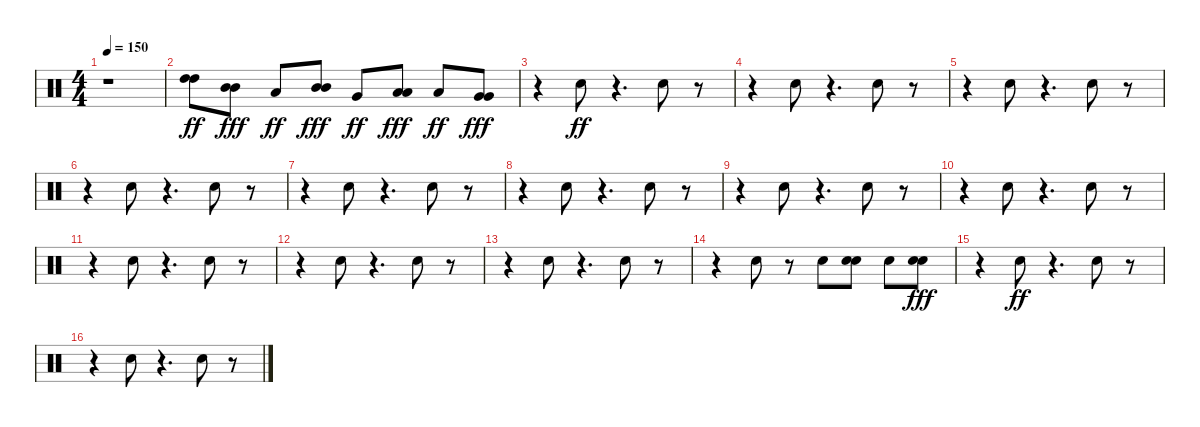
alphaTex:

\track "" {instrument percussion}
\staff {score}
\articulation defaults
\ts (4 4)
\tempo 150
\clef neutral
\ks c
r.1{dy ff} |
("High Tom (hit)" "High Tom (hit)").8 ("Mid Tom (hit)" "Mid Tom (hit)").8{dy fff} "Low Tom (hit)".8{dy ff} ("Mid Tom (hit)" "Mid Tom (hit)").8{dy fff} "Very Low Tom (hit)".8{dy ff} ("Low Tom (hit)" "Low Tom (hit)").8{dy fff} "Low Floor Tom (hit)".8{dy ff} ("Very Low Tom (hit)" "Very Low Tom (hit)").8{dy fff} |
r.4 "Electric Snare (hit)".8{dy ff} r.4{d} "Electric Snare (hit)".8 r.8 |
r.4 "Electric Snare (hit)".8 r.4{d} "Electric Snare (hit)".8 r.8 |
r.4 "Electric Snare (hit)".8 r.4{d} "Electric Snare (hit)".8 r.8 |
r.4 "Electric Snare (hit)".8 r.4{d} "Electric Snare (hit)".8 r.8 |
r.4 "Electric Snare (hit)".8 r.4{d} "Electric Snare (hit)".8 r.8 |
r.4 "Electric Snare (hit)".8 r.4{d} "Electric Snare (hit)".8 r.8 |
r.4 "Electric Snare (hit)".8 r.4{d} "Electric Snare (hit)".8 r.8 |
r.4 "Electric Snare (hit)".8 r.4{d} "Electric Snare (hit)".8 r.8 |
r.4 "Electric Snare (hit)".8 r.4{d} "Electric Snare (hit)".8 r.8 |
r.4 "Electric Snare (hit)".8 r.4{d} "Electric Snare (hit)".8 r.8 |
r.4 "Electric Snare (hit)".8 r.4{d} "Electric Snare (hit)".8 r.8 |
r.4 "Electric Snare (hit)".8 r.8 "Electric Snare (hit)".8 ("Electric Snare (hit)" "Electric Snare (hit)").8 "Electric Snare (hit)".8 ("Electric Snare (hit)" "Electric Snare (hit)").8{dy fff} |
r.4 "Electric Snare (hit)".8{dy ff} r.4{d} "Electric Snare (hit)".8 r.8 |
r.4 "Electric Snare (hit)".8 r.4{d} "Electric Snare (hit)".8 r.8
